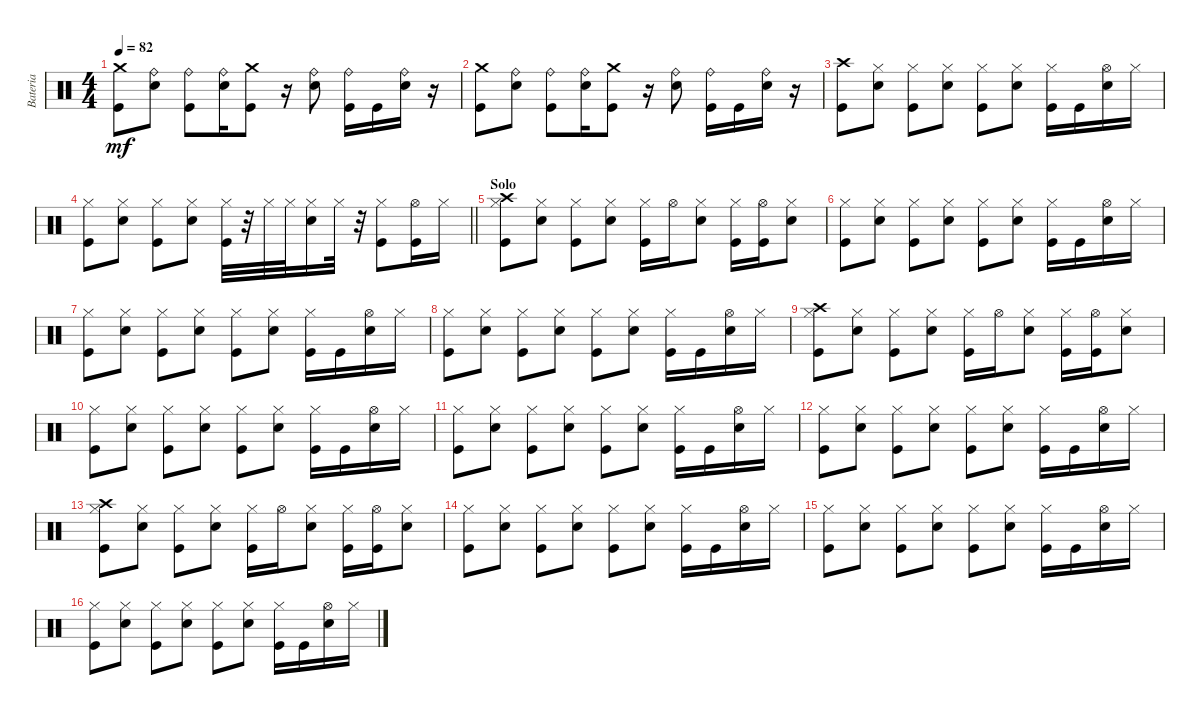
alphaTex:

\track ("Bateria" "Bateria") {instrument percussion}
\staff {score}
\articulation defaults
\ts (4 4)
\tempo 82
\clef neutral
\ks c
("Kick (hit)" "Crash medium (hit)").8{dy mf} ("Snare (hit) 2" "Ride (bell)").8 ("Kick (hit)" "Ride (bell)").8 ("Snare (hit) 2" "Ride (bell)").16 ("Kick (hit)" "Crash medium (hit)").8 r.16 ("Snare (hit) 2" "Ride (bell)").8 ("Kick (hit)" "Ride (bell)").16 "Kick (hit)".16 ("Snare (hit) 2" "Ride (bell)").16 r.16 |
("Kick (hit)" "Crash medium (hit)").8 ("Snare (hit) 2" "Ride (bell)").8 ("Kick (hit)" "Ride (bell)").8 ("Snare (hit) 2" "Ride (bell)").16 ("Kick (hit)" "Crash medium (hit)").8 r.16 ("Snare (hit) 2" "Ride (bell)").8 ("Kick (hit)" "Ride (bell)").16 "Kick (hit)".16 ("Snare (hit) 2" "Ride (bell)").16 r.16 |
("Crash high (hit)" "Kick (hit)").8 ("Snare (hit) 2" "Hi-Hat (closed)").8 ("Kick (hit)" "Hi-Hat (closed)").8 ("Hi-Hat (closed)" "Snare (hit) 2").8 ("Kick (hit)" "Hi-Hat (closed)").8 ("Snare (hit) 2" "Hi-Hat (closed)").8 ("Kick (hit)" "Hi-Hat (closed)").16 "Kick (hit)".16 ("Hi-Hat (open)" "Snare (hit) 2").16 "Hi-Hat (closed)".16 |
\barLineRight lightlight
("Kick (hit)" "Hi-Hat (closed)").8 ("Snare (hit) 2" "Hi-Hat (closed)").8 ("Kick (hit)" "Hi-Hat (closed)").8 ("Hi-Hat (closed)" "Snare (hit) 2").8 ("Kick (hit)" "Hi-Hat (closed)").32 r.32 "Hi-Hat (closed)".32 "Hi-Hat (closed)".32 ("Hi-Hat (closed)" "Snare (hit) 2").16 "Hi-Hat (closed)".32 r.32 ("Kick (hit)" "Hi-Hat (closed)").8 ("Kick (hit)" "Hi-Hat (open)").16 "Hi-Hat (closed)".16 |
\section ("" "Solo")
("Kick (hit)" "Hi-Hat (closed)" "Crash high (hit)").8 ("Snare (hit) 2" "Hi-Hat (closed)").8 ("Kick (hit)" "Hi-Hat (closed)").8 ("Hi-Hat (closed)" "Snare (hit) 2").8 ("Kick (hit)" "Hi-Hat (closed)").16 "Hi-Hat (open)".16 ("Snare (hit) 2" "Hi-Hat (closed)").8 ("Kick (hit)" "Hi-Hat (closed)").16 ("Kick (hit)" "Hi-Hat (open)").16 ("Hi-Hat (closed)" "Snare (hit) 2").8 |
("Kick (hit)" "Hi-Hat (closed)").8 ("Snare (hit) 2" "Hi-Hat (closed)").8 ("Kick (hit)" "Hi-Hat (closed)").8 ("Hi-Hat (closed)" "Snare (hit) 2").8 ("Kick (hit)" "Hi-Hat (closed)").8 ("Snare (hit) 2" "Hi-Hat (closed)").8 ("Kick (hit)" "Hi-Hat (closed)").16 "Kick (hit)".16 ("Hi-Hat (open)" "Snare (hit) 2").16 "Hi-Hat (closed)".16 |
("Kick (hit)" "Hi-Hat (closed)").8 ("Snare (hit) 2" "Hi-Hat (closed)").8 ("Kick (hit)" "Hi-Hat (closed)").8 ("Hi-Hat (closed)" "Snare (hit) 2").8 ("Kick (hit)" "Hi-Hat (closed)").8 ("Snare (hit) 2" "Hi-Hat (closed)").8 ("Kick (hit)" "Hi-Hat (closed)").16 "Kick (hit)".16 ("Hi-Hat (open)" "Snare (hit) 2").16 "Hi-Hat (closed)".16 |
("Kick (hit)" "Hi-Hat (closed)").8 ("Snare (hit) 2" "Hi-Hat (closed)").8 ("Kick (hit)" "Hi-Hat (closed)").8 ("Hi-Hat (closed)" "Snare (hit) 2").8 ("Kick (hit)" "Hi-Hat (closed)").8 ("Snare (hit) 2" "Hi-Hat (closed)").8 ("Kick (hit)" "Hi-Hat (closed)").16 "Kick (hit)".16 ("Hi-Hat (open)" "Snare (hit) 2").16 "Hi-Hat (closed)".16 |
("Kick (hit)" "Hi-Hat (closed)" "Crash high (hit)").8 ("Snare (hit) 2" "Hi-Hat (closed)").8 ("Kick (hit)" "Hi-Hat (closed)").8 ("Hi-Hat (closed)" "Snare (hit) 2").8 ("Kick (hit)" "Hi-Hat (closed)").16 "Hi-Hat (open)".16 ("Snare (hit) 2" "Hi-Hat (closed)").8 ("Kick (hit)" "Hi-Hat (closed)").16 ("Kick (hit)" "Hi-Hat (open)").16 ("Hi-Hat (closed)" "Snare (hit) 2").8 |
("Kick (hit)" "Hi-Hat (closed)").8 ("Snare (hit) 2" "Hi-Hat (closed)").8 ("Kick (hit)" "Hi-Hat (closed)").8 ("Hi-Hat (closed)" "Snare (hit) 2").8 ("Kick (hit)" "Hi-Hat (closed)").8 ("Snare (hit) 2" "Hi-Hat (closed)").8 ("Kick (hit)" "Hi-Hat (closed)").16 "Kick (hit)".16 ("Hi-Hat (open)" "Snare (hit) 2").16 "Hi-Hat (closed)".16 |
("Kick (hit)" "Hi-Hat (closed)").8 ("Snare (hit) 2" "Hi-Hat (closed)").8 ("Kick (hit)" "Hi-Hat (closed)").8 ("Hi-Hat (closed)" "Snare (hit) 2").8 ("Kick (hit)" "Hi-Hat (closed)").8 ("Snare (hit) 2" "Hi-Hat (closed)").8 ("Kick (hit)" "Hi-Hat (closed)").16 "Kick (hit)".16 ("Hi-Hat (open)" "Snare (hit) 2").16 "Hi-Hat (closed)".16 |
("Kick (hit)" "Hi-Hat (closed)").8 ("Snare (hit) 2" "Hi-Hat (closed)").8 ("Kick (hit)" "Hi-Hat (closed)").8 ("Hi-Hat (closed)" "Snare (hit) 2").8 ("Kick (hit)" "Hi-Hat (closed)").8 ("Snare (hit) 2" "Hi-Hat (closed)").8 ("Kick (hit)" "Hi-Hat (closed)").16 "Kick (hit)".16 ("Hi-Hat (open)" "Snare (hit) 2").16 "Hi-Hat (closed)".16 |
("Kick (hit)" "Hi-Hat (closed)" "Crash high (hit)").8 ("Snare (hit) 2" "Hi-Hat (closed)").8 ("Kick (hit)" "Hi-Hat (closed)").8 ("Hi-Hat (closed)" "Snare (hit) 2").8 ("Kick (hit)" "Hi-Hat (closed)").16 "Hi-Hat (open)".16 ("Snare (hit) 2" "Hi-Hat (closed)").8 ("Kick (hit)" "Hi-Hat (closed)").16 ("Kick (hit)" "Hi-Hat (open)").16 ("Hi-Hat (closed)" "Snare (hit) 2").8 |
("Kick (hit)" "Hi-Hat (closed)").8 ("Snare (hit) 2" "Hi-Hat (closed)").8 ("Kick (hit)" "Hi-Hat (closed)").8 ("Hi-Hat (closed)" "Snare (hit) 2").8 ("Kick (hit)" "Hi-Hat (closed)").8 ("Snare (hit) 2" "Hi-Hat (closed)").8 ("Kick (hit)" "Hi-Hat (closed)").16 "Kick (hit)".16 ("Hi-Hat (open)" "Snare (hit) 2").16 "Hi-Hat (closed)".16 |
("Kick (hit)" "Hi-Hat (closed)").8 ("Snare (hit) 2" "Hi-Hat (closed)").8 ("Kick (hit)" "Hi-Hat (closed)").8 ("Hi-Hat (closed)" "Snare (hit) 2").8 ("Kick (hit)" "Hi-Hat (closed)").8 ("Snare (hit) 2" "Hi-Hat (closed)").8 ("Kick (hit)" "Hi-Hat (closed)").16 "Kick (hit)".16 ("Hi-Hat (open)" "Snare (hit) 2").16 "Hi-Hat (closed)".16 |
("Kick (hit)" "Hi-Hat (closed)").8 ("Snare (hit) 2" "Hi-Hat (closed)").8 ("Kick (hit)" "Hi-Hat (closed)").8 ("Hi-Hat (closed)" "Snare (hit) 2").8 ("Kick (hit)" "Hi-Hat (closed)").8 ("Snare (hit) 2" "Hi-Hat (closed)").8 ("Kick (hit)" "Hi-Hat (closed)").16 "Kick (hit)".16 ("Hi-Hat (open)" "Snare (hit) 2").16 "Hi-Hat (closed)".16
